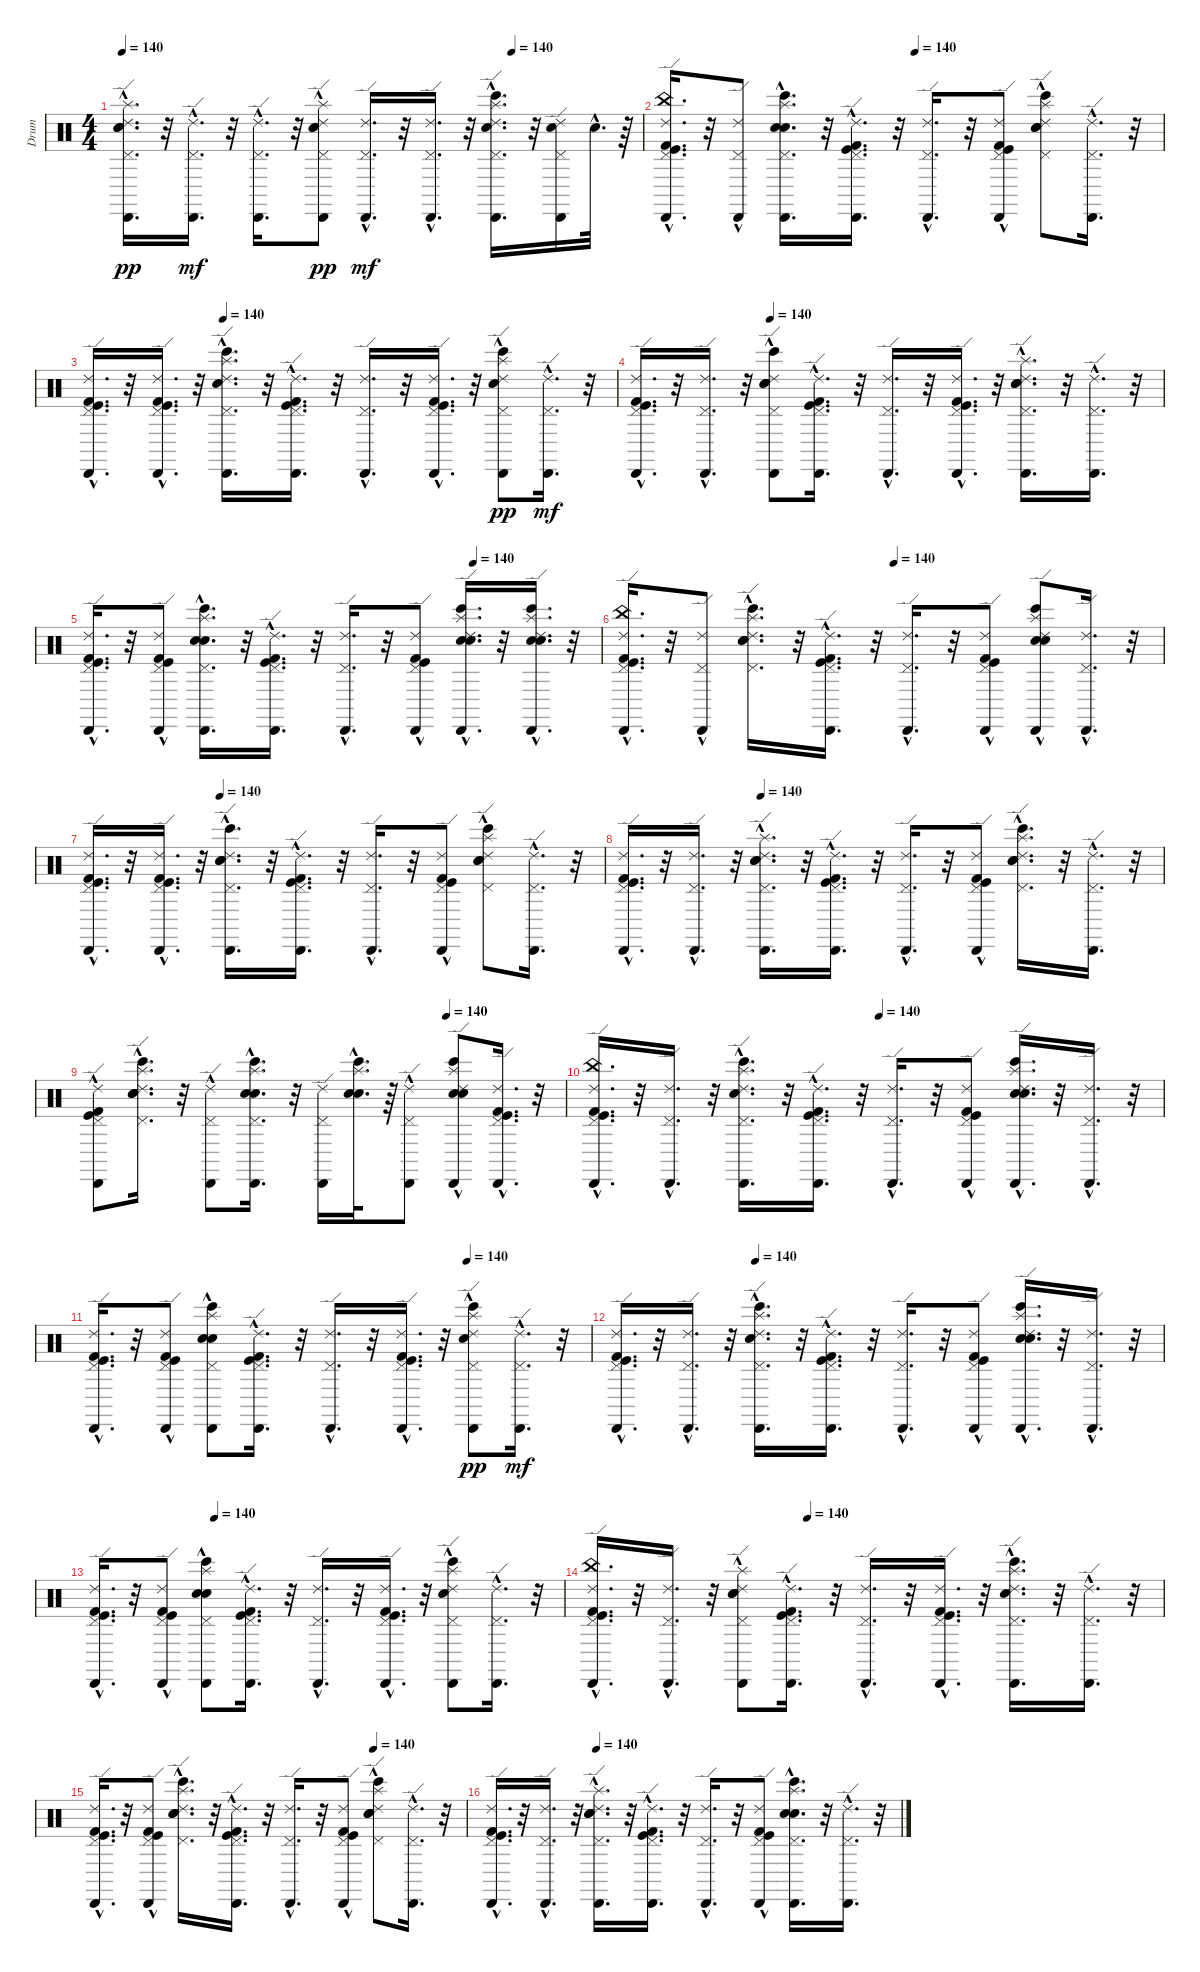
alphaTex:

\track ("Drum" "Drum") {instrument percussion}
\staff {score}
\articulation defaults
\ts (4 4)
\tempo 140
\tempo (140 0.75)
\clef neutral
\ks c
("Pedal Hi-Hat (hit)"{hac} "Cabasa (hit)"{hac} "Ride (edge) 2"{hac} "Electric Snare (hit)"{hac} "Snare (hit) 2"{hac} "Splash (hit)"{hac}).16{d dy pp} r.32 ("Pedal Hi-Hat (hit)"{hac} "Ride (edge) 2"{hac} "Cabasa (hit)"{hac}).16{d dy mf} r.32 ("Ride (edge) 2"{hac} "Cabasa (hit)"{hac} "Pedal Hi-Hat (hit)"{hac}).16{d} r.32 ("Pedal Hi-Hat (hit)"{hac} "Cabasa (hit)"{hac} "Ride (edge) 2"{hac} "Electric Snare (hit)"{hac} "Snare (hit) 2"{hac} "Splash (hit)"{hac}).8{dy pp} ("Pedal Hi-Hat (hit)"{hac} "Ride (edge) 2"{hac} "Cabasa (hit)"{hac}).16{d dy mf} r.32 ("Pedal Hi-Hat (hit)"{hac} "Ride (edge) 2"{hac} "Cabasa (hit)"{hac}).16{d} r.32 ("Pedal Hi-Hat (hit)"{hac} "Ride (edge) 2"{hac} "Splash (hit)"{hac} "Cabasa (hit)"{hac} "Bongo High (hit)"{hac} "Electric Snare (hit)"{hac}).16{d} r.32 ("Pedal Hi-Hat (hit)" "Ride (edge) 2" "Cabasa (hit)" "Snare (hit) 2").16 "Snare (hit) 2"{hac}.32{d} r.64 |
\tempo (140 0.5)
("Kick (hit)"{hac} "Pedal Hi-Hat (hit)"{hac} "China (hit)"{hac} "Cabasa (hit)"{hac} "Kick (hit) 2"{hac} "Ride (edge) 2"{hac}).16{d} r.32 ("Ride (edge) 2"{hac} "Pedal Hi-Hat (hit)"{hac} "Cabasa (hit)"{hac}).8 ("Cabasa (hit)"{hac} "Snare (hit) 2"{hac} "Splash (hit)"{hac} "Pedal Hi-Hat (hit)"{hac} "Bongo High (hit)"{hac} "Electric Snare (hit)"{hac}).16{d} r.32 ("Cabasa (hit)"{hac} "Kick (hit)"{hac} "Kick (hit) 2"{hac} "Pedal Hi-Hat (hit)"{hac} "Ride (edge) 2"{hac}).16{d} r.32 ("Cabasa (hit)"{hac} "Pedal Hi-Hat (hit)"{hac} "Ride (edge) 2"{hac}).16{d} r.32 ("Kick (hit) 2"{hac} "Cabasa (hit)"{hac} "Kick (hit)"{hac} "Ride (edge) 2"{hac} "Pedal Hi-Hat (hit)"{hac}).8 ("Pedal Hi-Hat (hit)"{hac} "Ride (edge) 2"{hac} "Snare (hit) 2"{hac} "Electric Snare (hit)" "Splash (hit)"{hac} "Bongo High (hit)"{hac}).8 ("Ride (edge) 2"{hac} "Pedal Hi-Hat (hit)"{hac} "Cabasa (hit)"{hac}).16{d} r.32 |
\tempo (140 0.25)
("Ride (edge) 2"{hac} "Cabasa (hit)"{hac} "Kick (hit)"{hac} "Pedal Hi-Hat (hit)"{hac} "Kick (hit) 2"{hac}).16{d} r.32 ("Pedal Hi-Hat (hit)"{hac} "Kick (hit) 2"{hac} "Cabasa (hit)"{hac} "Ride (edge) 2"{hac} "Kick (hit)"{hac}).16{d} r.32 ("Splash (hit)"{hac} "Cabasa (hit)"{hac} "Pedal Hi-Hat (hit)"{hac} "Ride (edge) 2"{hac} "Snare (hit) 2"{hac} "Bongo High (hit)"{hac}).16{d} r.32 ("Cabasa (hit)"{hac} "Kick (hit) 2"{hac} "Kick (hit)"{hac} "Ride (edge) 2"{hac} "Pedal Hi-Hat (hit)"{hac}).16{d} r.32 ("Pedal Hi-Hat (hit)"{hac} "Cabasa (hit)"{hac} "Ride (edge) 2"{hac}).16{d} r.32 ("Cabasa (hit)"{hac} "Ride (edge) 2"{hac} "Kick (hit)"{hac} "Kick (hit) 2"{hac} "Pedal Hi-Hat (hit)"{hac}).16{d} r.32 ("Cabasa (hit)"{hac} "Pedal Hi-Hat (hit)"{hac} "Ride (edge) 2"{hac} "Snare (hit) 2"{hac} "Bongo High (hit)"{hac} "Splash (hit)").8{dy pp} ("Pedal Hi-Hat (hit)"{hac} "Ride (edge) 2"{hac} "Cabasa (hit)"{hac}).16{d dy mf} r.32 |
\tempo (140 0.25)
("Pedal Hi-Hat (hit)"{hac} "Kick (hit)"{hac} "Cabasa (hit)"{hac} "Kick (hit) 2"{hac} "Ride (edge) 2"{hac}).16{d} r.32 ("Ride (edge) 2"{hac} "Cabasa (hit)"{hac} "Pedal Hi-Hat (hit)"{hac}).16{d} r.32 ("Bongo High (hit)" "Ride (edge) 2"{hac} "Electric Snare (hit)"{hac} "Snare (hit) 2"{hac} "Cabasa (hit)"{hac} "Pedal Hi-Hat (hit)"{hac}).8 ("Kick (hit)"{hac} "Kick (hit) 2"{hac} "Pedal Hi-Hat (hit)"{hac} "Cabasa (hit)"{hac} "Ride (edge) 2"{hac}).16{d} r.32 ("Pedal Hi-Hat (hit)"{hac} "Cabasa (hit)"{hac} "Ride (edge) 2"{hac}).16{d} r.32 ("Kick (hit) 2"{hac} "Kick (hit)"{hac} "Ride (edge) 2"{hac} "Cabasa (hit)"{hac} "Pedal Hi-Hat (hit)"{hac}).16{d} r.32 ("Cabasa (hit)"{hac} "Pedal Hi-Hat (hit)"{hac} "Snare (hit) 2"{hac} "Electric Snare (hit)"{hac} "Splash (hit)"{hac} "Ride (edge) 2"{hac}).16{d} r.32 ("Pedal Hi-Hat (hit)"{hac} "Ride (edge) 2"{hac} "Cabasa (hit)"{hac}).16{d} r.32 |
\tempo (140 0.75)
("Ride (edge) 2"{hac} "Kick (hit) 2"{hac} "Cabasa (hit)"{hac} "Kick (hit)"{hac} "Pedal Hi-Hat (hit)"{hac}).16{d} r.32 ("Cabasa (hit)"{hac} "Ride (edge) 2"{hac} "Pedal Hi-Hat (hit)"{hac} "Kick (hit)"{hac} "Kick (hit) 2"{hac}).8 ("Electric Snare (hit)"{hac} "Bongo High (hit)"{hac} "Splash (hit)"{hac} "Snare (hit) 2"{hac} "Pedal Hi-Hat (hit)"{hac} "Cabasa (hit)"{hac}).16{d} r.32 ("Ride (edge) 2"{hac} "Kick (hit) 2"{hac} "Cabasa (hit)"{hac} "Kick (hit)"{hac} "Pedal Hi-Hat (hit)"{hac}).16{d} r.32 ("Cabasa (hit)"{hac} "Ride (edge) 2"{hac} "Pedal Hi-Hat (hit)"{hac}).16{d} r.32 ("Cabasa (hit)"{hac} "Ride (edge) 2"{hac} "Kick (hit)"{hac} "Pedal Hi-Hat (hit)" "Kick (hit) 2"{hac}).8 ("Bongo High (hit)"{hac} "Electric Snare (hit)"{hac} "Cabasa (hit)"{hac} "Splash (hit)"{hac} "Snare (hit) 2"{hac} "Ride (edge) 2"{hac}).16{d} r.32 ("Splash (hit)"{hac} "Bongo High (hit)"{hac} "Electric Snare (hit)"{hac} "Snare (hit) 2"{hac} "Cabasa (hit)"{hac} "Ride (edge) 2"{hac}).16{d} r.32 |
\tempo (140 0.5)
("Ride (edge) 2"{hac} "Kick (hit) 2"{hac} "Cabasa (hit)"{hac} "China (hit)"{hac} "Pedal Hi-Hat (hit)"{hac} "Kick (hit)"{hac}).16{d} r.32 ("Cabasa (hit)"{hac} "Pedal Hi-Hat (hit)"{hac} "Ride (edge) 2"{hac}).8 ("Ride (edge) 2"{hac} "Electric Snare (hit)"{hac} "Bongo High (hit)"{hac} "Pedal Hi-Hat (hit)"{hac} "Splash (hit)"{hac} "Snare (hit) 2"{hac}).16{d} r.32 ("Ride (edge) 2"{hac} "Pedal Hi-Hat (hit)"{hac} "Kick (hit) 2"{hac} "Kick (hit)"{hac} "Cabasa (hit)"{hac}).16{d} r.32 ("Ride (edge) 2"{hac} "Pedal Hi-Hat (hit)"{hac} "Cabasa (hit)"{hac}).16{d} r.32 ("Pedal Hi-Hat (hit)"{hac} "Ride (edge) 2"{hac} "Kick (hit)"{hac} "Cabasa (hit)"{hac} "Kick (hit) 2"{hac}).8 ("Cabasa (hit)"{hac} "Bongo High (hit)"{hac} "Splash (hit)" "Electric Snare (hit)"{hac} "Snare (hit) 2"{hac} "Ride (edge) 2"{hac}).8 ("Cabasa (hit)"{hac} "Pedal Hi-Hat (hit)"{hac} "Ride (edge) 2"{hac}).16{d} r.32 |
\tempo (140 0.25)
("Kick (hit) 2"{hac} "Pedal Hi-Hat (hit)"{hac} "Kick (hit)"{hac} "Cabasa (hit)"{hac} "Ride (edge) 2"{hac}).16{d} r.32 ("Kick (hit)"{hac} "Ride (edge) 2"{hac} "Cabasa (hit)"{hac} "Kick (hit) 2"{hac} "Pedal Hi-Hat (hit)"{hac}).16{d} r.32 ("Electric Snare (hit)"{hac} "Bongo High (hit)"{hac} "Snare (hit) 2"{hac} "Ride (edge) 2"{hac} "Pedal Hi-Hat (hit)"{hac} "Cabasa (hit)"{hac}).16{d} r.32 ("Pedal Hi-Hat (hit)"{hac} "Ride (edge) 2"{hac} "Kick (hit)"{hac} "Kick (hit) 2"{hac} "Cabasa (hit)"{hac}).16{d} r.32 ("Ride (edge) 2"{hac} "Cabasa (hit)"{hac} "Pedal Hi-Hat (hit)"{hac}).16{d} r.32 ("Pedal Hi-Hat (hit)"{hac} "Kick (hit) 2"{hac} "Kick (hit)"{hac} "Ride (edge) 2"{hac} "Cabasa (hit)"{hac}).8 ("Electric Snare (hit)"{hac} "Splash (hit)"{hac} "Bongo High (hit)" "Snare (hit) 2"{hac} "Ride (edge) 2"{hac} "Pedal Hi-Hat (hit)"{hac}).8 ("Cabasa (hit)"{hac} "Ride (edge) 2"{hac} "Pedal Hi-Hat (hit)"{hac}).16{d} r.32 |
\tempo (140 0.25)
("Ride (edge) 2"{hac} "Kick (hit) 2"{hac} "Cabasa (hit)"{hac} "Kick (hit)"{hac} "Pedal Hi-Hat (hit)"{hac}).16{d} r.32 ("Pedal Hi-Hat (hit)"{hac} "Cabasa (hit)"{hac} "Ride (edge) 2"{hac}).16{d} r.32 ("Splash (hit)"{hac} "Pedal Hi-Hat (hit)"{hac} "Cabasa (hit)"{hac} "Snare (hit) 2"{hac} "Electric Snare (hit)"{hac} "Ride (edge) 2"{hac}).16{d} r.32 ("Ride (edge) 2"{hac} "Cabasa (hit)"{hac} "Pedal Hi-Hat (hit)"{hac} "Kick (hit) 2"{hac} "Kick (hit)"{hac}).16{d} r.32 ("Ride (edge) 2"{hac} "Cabasa (hit)"{hac} "Pedal Hi-Hat (hit)"{hac}).16{d} r.32 ("Pedal Hi-Hat (hit)"{hac} "Cabasa (hit)"{hac} "Ride (edge) 2"{hac} "Kick (hit)"{hac} "Kick (hit) 2"{hac}).8 ("Bongo High (hit)"{hac} "Ride (edge) 2"{hac} "Splash (hit)"{hac} "Electric Snare (hit)"{hac} "Snare (hit) 2"{hac} "Pedal Hi-Hat (hit)"{hac}).16{d} r.32 ("Cabasa (hit)"{hac} "Ride (edge) 2"{hac} "Pedal Hi-Hat (hit)"{hac}).16{d} r.32 |
\tempo (140 0.75)
("Kick (hit) 2"{hac} "Kick (hit)"{hac} "Pedal Hi-Hat (hit)"{hac} "Cabasa (hit)"{hac} "Ride (edge) 2"{hac}).8 ("Splash (hit)"{hac} "Bongo High (hit)"{hac} "Electric Snare (hit)"{hac} "Snare (hit) 2"{hac} "Pedal Hi-Hat (hit)"{hac} "Ride (edge) 2"{hac}).16{d} r.32 ("Ride (edge) 2"{hac} "Cabasa (hit)"{hac} "Pedal Hi-Hat (hit)"{hac}).8 ("Splash (hit)"{hac} "Bongo High (hit)"{hac} "Electric Snare (hit)"{hac} "Snare (hit) 2"{hac} "Pedal Hi-Hat (hit)"{hac} "Cabasa (hit)"{hac}).16{d} r.32 ("Pedal Hi-Hat (hit)" "Ride (edge) 2" "Cabasa (hit)").16 ("Splash (hit)"{hac} "Bongo High (hit)"{hac} "Electric Snare (hit)"{hac} "Snare (hit) 2"{hac}).32{d} r.64 ("Cabasa (hit)"{hac} "Ride (edge) 2"{hac} "Pedal Hi-Hat (hit)"{hac}).8 ("Splash (hit)"{hac} "Bongo High (hit)"{hac} "Electric Snare (hit)" "Cabasa (hit)"{hac} "Ride (edge) 2"{hac} "Snare (hit) 2"{hac}).8 ("Kick (hit) 2"{hac} "Kick (hit)"{hac} "Cabasa (hit)"{hac} "Ride (edge) 2"{hac} "Pedal Hi-Hat (hit)"{hac}).16{d} r.32 |
\tempo (140 0.5)
("China (hit)"{hac} "Kick (hit)"{hac} "Pedal Hi-Hat (hit)"{hac} "Ride (edge) 2"{hac} "Kick (hit) 2"{hac} "Cabasa (hit)"{hac}).16{d} r.32 ("Pedal Hi-Hat (hit)"{hac} "Cabasa (hit)"{hac} "Ride (edge) 2"{hac}).16{d} r.32 ("Pedal Hi-Hat (hit)"{hac} "Ride (edge) 2"{hac} "Splash (hit)"{hac} "Snare (hit) 2"{hac} "Bongo High (hit)"{hac} "Cabasa (hit)"{hac}).16{d} r.32 ("Ride (edge) 2"{hac} "Pedal Hi-Hat (hit)"{hac} "Kick (hit)"{hac} "Cabasa (hit)"{hac} "Kick (hit) 2"{hac}).16{d} r.32 ("Cabasa (hit)"{hac} "Pedal Hi-Hat (hit)"{hac} "Ride (edge) 2"{hac}).16{d} r.32 ("Ride (edge) 2"{hac} "Pedal Hi-Hat (hit)"{hac} "Kick (hit) 2"{hac} "Kick (hit)"{hac} "Cabasa (hit)"{hac}).8 ("Cabasa (hit)"{hac} "Bongo High (hit)"{hac} "Splash (hit)"{hac} "Ride (edge) 2"{hac} "Electric Snare (hit)"{hac} "Snare (hit) 2"{hac}).16{d} r.32 ("Cabasa (hit)"{hac} "Pedal Hi-Hat (hit)"{hac} "Ride (edge) 2"{hac}).16{d} r.32 |
\tempo (140 0.75)
("Kick (hit) 2"{hac} "Cabasa (hit)"{hac} "Ride (edge) 2"{hac} "Kick (hit)"{hac} "Pedal Hi-Hat (hit)"{hac}).16{d} r.32 ("Pedal Hi-Hat (hit)"{hac} "Kick (hit) 2"{hac} "Ride (edge) 2"{hac} "Cabasa (hit)"{hac} "Kick (hit)"{hac}).8 ("Cabasa (hit)"{hac} "Electric Snare (hit)"{hac} "Splash (hit)"{hac} "Snare (hit) 2" "Bongo High (hit)"{hac} "Pedal Hi-Hat (hit)"{hac}).8 ("Kick (hit) 2"{hac} "Cabasa (hit)"{hac} "Pedal Hi-Hat (hit)"{hac} "Kick (hit)"{hac} "Ride (edge) 2"{hac}).16{d} r.32 ("Ride (edge) 2"{hac} "Cabasa (hit)"{hac} "Pedal Hi-Hat (hit)"{hac}).16{d} r.32 ("Kick (hit)"{hac} "Cabasa (hit)"{hac} "Kick (hit) 2"{hac} "Ride (edge) 2"{hac} "Pedal Hi-Hat (hit)"{hac}).16{d} r.32 ("Cabasa (hit)"{hac} "Ride (edge) 2"{hac} "Pedal Hi-Hat (hit)"{hac} "Bongo High (hit)"{hac} "Electric Snare (hit)" "Splash (hit)"{hac}).8{dy pp} ("Pedal Hi-Hat (hit)"{hac} "Cabasa (hit)"{hac} "Ride (edge) 2"{hac}).16{d dy mf} r.32 |
\tempo (140 0.25)
("Kick (hit) 2"{hac} "Kick (hit)"{hac} "Ride (edge) 2"{hac} "Cabasa (hit)"{hac} "Pedal Hi-Hat (hit)"{hac}).16{d} r.32 ("Ride (edge) 2"{hac} "Cabasa (hit)"{hac} "Pedal Hi-Hat (hit)"{hac}).16{d} r.32 ("Bongo High (hit)"{hac} "Ride (edge) 2"{hac} "Splash (hit)"{hac} "Pedal Hi-Hat (hit)"{hac} "Snare (hit) 2"{hac} "Cabasa (hit)"{hac}).16{d} r.32 ("Kick (hit)"{hac} "Kick (hit) 2"{hac} "Cabasa (hit)"{hac} "Pedal Hi-Hat (hit)"{hac} "Ride (edge) 2"{hac}).16{d} r.32 ("Pedal Hi-Hat (hit)"{hac} "Ride (edge) 2"{hac} "Cabasa (hit)"{hac}).16{d} r.32 ("Kick (hit)"{hac} "Cabasa (hit)"{hac} "Kick (hit) 2"{hac} "Ride (edge) 2"{hac} "Pedal Hi-Hat (hit)"{hac}).8 ("Ride (edge) 2"{hac} "Bongo High (hit)"{hac} "Splash (hit)"{hac} "Electric Snare (hit)"{hac} "Cabasa (hit)"{hac} "Snare (hit) 2"{hac}).16{d} r.32 ("Ride (edge) 2"{hac} "Cabasa (hit)"{hac} "Pedal Hi-Hat (hit)"{hac}).16{d} r.32 |
\tempo (140 0.25)
("Cabasa (hit)"{hac} "Kick (hit)"{hac} "Pedal Hi-Hat (hit)"{hac} "Ride (edge) 2"{hac} "Kick (hit) 2"{hac}).16{d} r.32 ("Cabasa (hit)"{hac} "Kick (hit) 2"{hac} "Ride (edge) 2"{hac} "Kick (hit)"{hac} "Pedal Hi-Hat (hit)"{hac}).8 ("Bongo High (hit)"{hac} "Cabasa (hit)"{hac} "Splash (hit)"{hac} "Pedal Hi-Hat (hit)"{hac} "Electric Snare (hit)" "Snare (hit) 2"{hac}).8 ("Kick (hit) 2"{hac} "Pedal Hi-Hat (hit)"{hac} "Kick (hit)"{hac} "Cabasa (hit)"{hac} "Ride (edge) 2"{hac}).16{d} r.32 ("Ride (edge) 2"{hac} "Cabasa (hit)"{hac} "Pedal Hi-Hat (hit)"{hac}).16{d} r.32 ("Ride (edge) 2"{hac} "Kick (hit)"{hac} "Pedal Hi-Hat (hit)"{hac} "Cabasa (hit)"{hac} "Kick (hit) 2"{hac}).16{d} r.32 ("Ride (edge) 2"{hac} "Splash (hit)"{hac} "Snare (hit) 2"{hac} "Cabasa (hit)"{hac} "Bongo High (hit)" "Pedal Hi-Hat (hit)"{hac}).8 ("Cabasa (hit)"{hac} "Ride (edge) 2"{hac} "Pedal Hi-Hat (hit)"{hac}).16{d} r.32 |
\tempo (140 0.375)
("China (hit)"{hac} "Cabasa (hit)"{hac} "Kick (hit) 2"{hac} "Kick (hit)"{hac} "Pedal Hi-Hat (hit)"{hac} "Ride (edge) 2"{hac}).16{d} r.32 ("Ride (edge) 2"{hac} "Cabasa (hit)"{hac} "Pedal Hi-Hat (hit)"{hac}).16{d} r.32 ("Ride (edge) 2"{hac} "Pedal Hi-Hat (hit)"{hac} "Splash (hit)"{hac} "Electric Snare (hit)" "Cabasa (hit)"{hac} "Snare (hit) 2"{hac}).8 ("Ride (edge) 2"{hac} "Pedal Hi-Hat (hit)"{hac} "Kick (hit) 2"{hac} "Cabasa (hit)"{hac} "Kick (hit)"{hac}).16{d} r.32 ("Cabasa (hit)"{hac} "Ride (edge) 2"{hac} "Pedal Hi-Hat (hit)"{hac}).16{d} r.32 ("Pedal Hi-Hat (hit)"{hac} "Kick (hit) 2"{hac} "Ride (edge) 2"{hac} "Cabasa (hit)"{hac} "Kick (hit)"{hac}).16{d} r.32 ("Bongo High (hit)"{hac} "Cabasa (hit)"{hac} "Splash (hit)"{hac} "Pedal Hi-Hat (hit)"{hac} "Snare (hit) 2"{hac} "Ride (edge) 2"{hac}).16{d} r.32 ("Cabasa (hit)"{hac} "Ride (edge) 2"{hac} "Pedal Hi-Hat (hit)"{hac}).16{d} r.32 |
\tempo (140 0.75)
("Pedal Hi-Hat (hit)"{hac} "Kick (hit)"{hac} "Ride (edge) 2"{hac} "Cabasa (hit)"{hac} "Kick (hit) 2"{hac}).16{d} r.32 ("Kick (hit)"{hac} "Cabasa (hit)"{hac} "Ride (edge) 2"{hac} "Kick (hit) 2"{hac} "Pedal Hi-Hat (hit)"{hac}).8 ("Ride (edge) 2"{hac} "Pedal Hi-Hat (hit)"{hac} "Bongo High (hit)"{hac} "Snare (hit) 2"{hac} "Splash (hit)"{hac} "Electric Snare (hit)"{hac}).16{d} r.32 ("Ride (edge) 2"{hac} "Kick (hit)"{hac} "Pedal Hi-Hat (hit)"{hac} "Cabasa (hit)"{hac} "Kick (hit) 2"{hac}).16{d} r.32 ("Pedal Hi-Hat (hit)"{hac} "Cabasa (hit)"{hac} "Ride (edge) 2"{hac}).16{d} r.32 ("Pedal Hi-Hat (hit)"{hac} "Ride (edge) 2"{hac} "Kick (hit) 2"{hac} "Cabasa (hit)"{hac} "Kick (hit)"{hac}).8 ("Snare (hit) 2"{hac} "Splash (hit)"{hac} "Electric Snare (hit)"{hac} "Bongo High (hit)" "Pedal Hi-Hat (hit)"{hac} "Ride (edge) 2"{hac}).8 ("Ride (edge) 2"{hac} "Cabasa (hit)"{hac} "Pedal Hi-Hat (hit)"{hac}).16{d} r.32 |
\tempo (140 0.25)
("Pedal Hi-Hat (hit)"{hac} "Cabasa (hit)"{hac} "Ride (edge) 2"{hac} "Kick (hit)"{hac} "Kick (hit) 2"{hac}).16{d} r.32 ("Pedal Hi-Hat (hit)"{hac} "Cabasa (hit)"{hac} "Ride (edge) 2"{hac}).16{d} r.32 ("Electric Snare (hit)"{hac} "Cabasa (hit)"{hac} "Snare (hit) 2"{hac} "Pedal Hi-Hat (hit)"{hac} "Splash (hit)"{hac} "Ride (edge) 2"{hac}).16{d} r.32 ("Ride (edge) 2"{hac} "Pedal Hi-Hat (hit)"{hac} "Cabasa (hit)"{hac} "Kick (hit) 2"{hac} "Kick (hit)"{hac}).16{d} r.32 ("Cabasa (hit)"{hac} "Ride (edge) 2"{hac} "Pedal Hi-Hat (hit)"{hac}).16{d} r.32 ("Pedal Hi-Hat (hit)"{hac} "Ride (edge) 2"{hac} "Kick (hit) 2"{hac} "Cabasa (hit)"{hac} "Kick (hit)"{hac}).8 ("Pedal Hi-Hat (hit)"{hac} "Snare (hit) 2"{hac} "Cabasa (hit)"{hac} "Electric Snare (hit)"{hac} "Splash (hit)"{hac} "Bongo High (hit)"{hac}).16{d} r.32 ("Pedal Hi-Hat (hit)"{hac} "Cabasa (hit)"{hac} "Ride (edge) 2"{hac}).16{d} r.32
